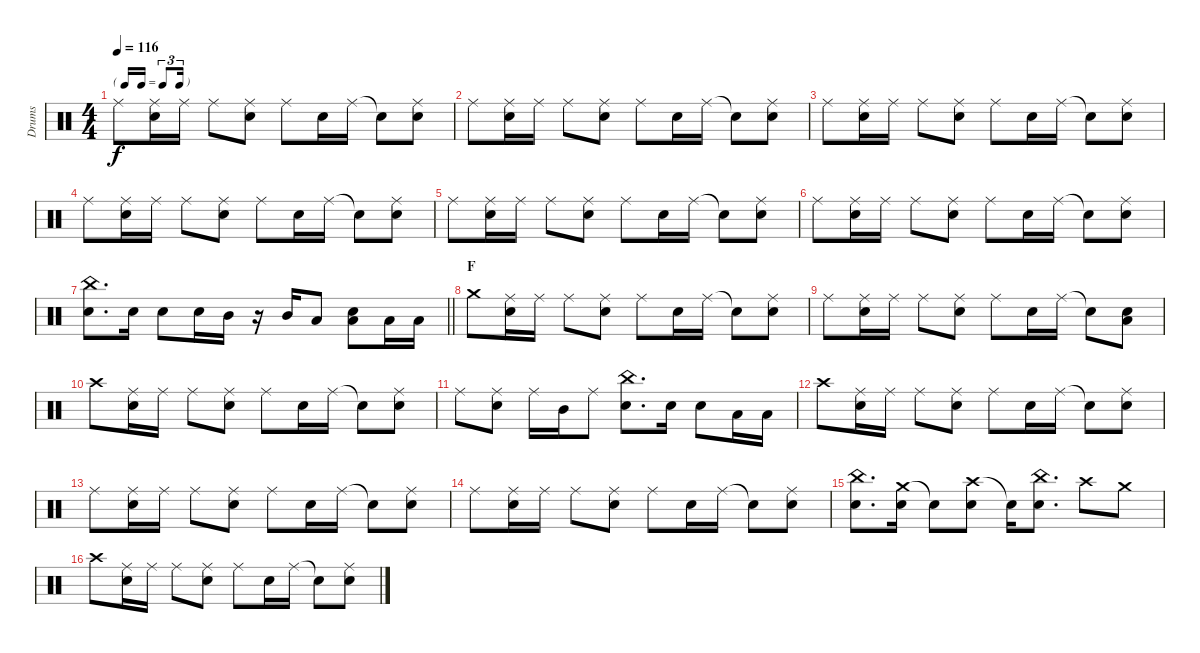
\track ("Drums" "Drums") {instrument percussion}
\staff {score}
\articulation defaults
\ts (4 4)
\tf triplet16th
\tempo 116
\clef neutral
\ks c "Ride (middle)".8{dy f}
("Ride (middle)" "Snare (hit) 2").16 "Ride (middle)".16 "Ride (middle)".8 ("Ride (middle)" "Snare (hit) 2").8 "Ride (middle)".8 "Snare (hit) 2".16 "Ride (middle)".16 "Snare (hit)"{t}.8 ("Ride (middle)" "Snare (hit) 2").8 |
"Ride (middle)".8 ("Ride (middle)" "Snare (hit) 2").16 "Ride (middle)".16 "Ride (middle)".8 ("Ride (middle)" "Snare (hit) 2").8 "Ride (middle)".8 "Snare (hit) 2".16 "Ride (middle)".16 "Snare (hit)"{t}.8 ("Ride (middle)" "Snare (hit) 2").8 |
"Ride (middle)".8 ("Ride (middle)" "Snare (hit) 2").16 "Ride (middle)".16 "Ride (middle)".8 ("Ride (middle)" "Snare (hit) 2").8 "Ride (middle)".8 "Snare (hit) 2".16 "Ride (middle)".16 "Snare (hit)"{t}.8 ("Ride (middle)" "Snare (hit) 2").8 |
"Ride (middle)".8 ("Ride (middle)" "Snare (hit) 2").16 "Ride (middle)".16 "Ride (middle)".8 ("Ride (middle)" "Snare (hit) 2").8 "Ride (middle)".8 "Snare (hit) 2".16 "Ride (middle)".16 "Snare (hit)"{t}.8 ("Ride (middle)" "Snare (hit) 2").8 |
"Ride (middle)".8 ("Ride (middle)" "Snare (hit) 2").16 "Ride (middle)".16 "Ride (middle)".8 ("Ride (middle)" "Snare (hit) 2").8 "Ride (middle)".8 "Snare (hit) 2".16 "Ride (middle)".16 "Snare (hit)"{t}.8 ("Ride (middle)" "Snare (hit) 2").8 |
"Ride (middle)".8 ("Ride (middle)" "Snare (hit) 2").16 "Ride (middle)".16 "Ride (middle)".8 ("Ride (middle)" "Snare (hit) 2").8 "Ride (middle)".8 "Snare (hit) 2".16 "Ride (middle)".16 "Snare (hit)"{t}.8 ("Ride (middle)" "Snare (hit) 2").8 |
\barLineRight lightlight
("China (hit)" "Snare (hit) 2").8{d} "Snare (hit) 2".16 "Snare (hit) 2".8 "Snare (hit) 2".16 "Mid Tom (hit)".16 r.16 "Mid Tom (hit)".16 "Low Tom (hit)".8 ("Snare (hit) 2" "Low Tom (hit)").8 "Low Tom (hit)".16 "Low Tom (hit)".16 |
\section ("" "F")
"Crash medium (hit)".8 ("Ride (middle)" "Snare (hit) 2").16 "Ride (middle)".16 "Ride (middle)".8 ("Ride (middle)" "Snare (hit) 2").8 "Ride (middle)".8 "Snare (hit) 2".16 "Ride (middle)".16 "Snare (hit)"{t}.8 ("Ride (middle)" "Snare (hit) 2").8 |
"Ride (middle)".8 ("Ride (middle)" "Snare (hit) 2").16 "Ride (middle)".16 "Ride (middle)".8 ("Ride (middle)" "Snare (hit) 2").8 "Ride (middle)".8 "Snare (hit) 2".16 "Ride (middle)".16 "Snare (hit)"{t}.8 ("Snare (hit) 2" "Low Tom (hit)").8 |
"Crash high (hit)".8 ("Ride (middle)" "Snare (hit) 2").16 "Ride (middle)".16 "Ride (middle)".8 ("Ride (middle)" "Snare (hit) 2").8 "Ride (middle)".8 "Snare (hit) 2".16 "Ride (middle)".16 "Snare (hit)"{t}.8 ("Ride (middle)" "Snare (hit) 2").8 |
"Ride (middle)".8 ("Ride (middle)" "Snare (hit) 2").8 "Ride (middle)".16 "Mid Tom (hit)".16 "Ride (middle)".8 ("China (hit)" "Snare (hit) 2").8{d} "Snare (hit) 2".16 "Snare (hit) 2".8 "Low Tom (hit)".16 "Low Tom (hit)".16 |
"Crash high (hit)".8 ("Ride (middle)" "Snare (hit) 2").16 "Ride (middle)".16 "Ride (middle)".8 ("Ride (middle)" "Snare (hit) 2").8 "Ride (middle)".8 "Snare (hit) 2".16 "Ride (middle)".16 "Snare (hit)"{t}.8 ("Ride (middle)" "Snare (hit) 2").8 |
"Ride (middle)".8 ("Ride (middle)" "Snare (hit) 2").16 "Ride (middle)".16 "Ride (middle)".8 ("Ride (middle)" "Snare (hit) 2").8 "Ride (middle)".8 "Snare (hit) 2".16 "Ride (middle)".16 "Snare (hit)"{t}.8 ("Ride (middle)" "Snare (hit) 2").8 |
"Ride (middle)".8 ("Ride (middle)" "Snare (hit) 2").16 "Ride (middle)".16 "Ride (middle)".8 ("Ride (middle)" "Snare (hit) 2").8 "Ride (middle)".8 "Snare (hit) 2".16 "Ride (middle)".16 "Snare (hit)"{t}.8 ("Ride (middle)" "Snare (hit) 2").8 |
("China (hit)" "Snare (hit) 2").8{d} ("Crash medium (hit)" "Snare (hit) 2").16 "Snare (hit)"{t}.8 ("Crash high (hit)" "Snare (hit) 2").8 "Snare (hit)"{t}.16 ("China (hit)" "Snare (hit) 2").8{d} "Crash high (hit)".8 "Crash medium (hit)".8 |
"Crash high (hit)".8 ("Ride (middle)" "Snare (hit) 2").16 "Ride (middle)".16 "Ride (middle)".8 ("Ride (middle)" "Snare (hit) 2").8 "Ride (middle)".8 "Snare (hit) 2".16 "Ride (middle)".16 "Snare (hit)"{t}.8 ("Ride (middle)" "Snare (hit) 2").8
